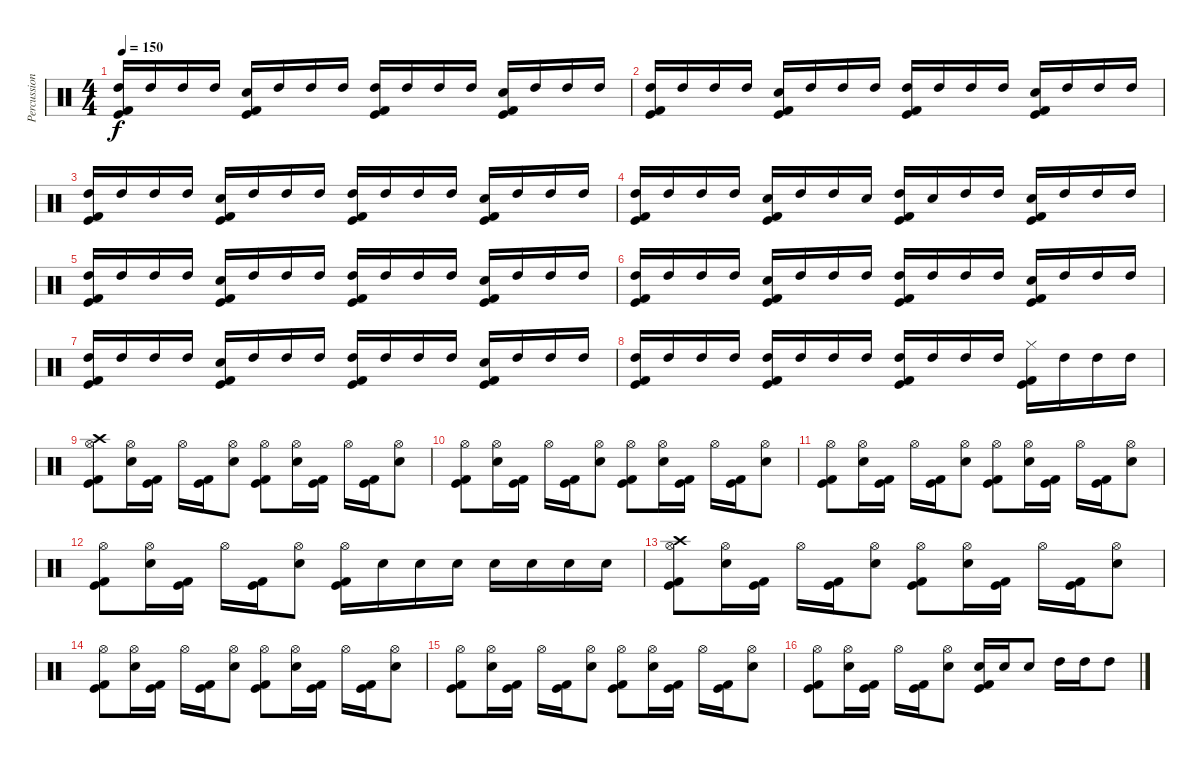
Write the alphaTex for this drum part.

\track ("Percussion" "Percussion") {instrument percussion}
\staff {score}
\articulation defaults
\ts (4 4)
\tempo 150
\clef neutral
\ks c
("High Tom (hit)" "Kick (hit)" "Kick (hit) 2").16{dy f} "High Tom (hit)".16 "High Tom (hit)".16 "High Tom (hit)".16 ("Electric Snare (hit)" "Kick (hit)" "Kick (hit) 2").16 "High Tom (hit)".16 "High Tom (hit)".16 "High Tom (hit)".16 ("High Tom (hit)" "Kick (hit)" "Kick (hit) 2").16 "High Tom (hit)".16 "High Tom (hit)".16 "High Tom (hit)".16 ("Electric Snare (hit)" "Kick (hit)" "Kick (hit) 2").16 "High Tom (hit)".16 "High Tom (hit)".16 "High Tom (hit)".16 |
("High Tom (hit)" "Kick (hit)" "Kick (hit) 2").16 "High Tom (hit)".16 "High Tom (hit)".16 "High Tom (hit)".16 ("Electric Snare (hit)" "Kick (hit)" "Kick (hit) 2").16 "High Tom (hit)".16 "High Tom (hit)".16 "High Tom (hit)".16 ("High Tom (hit)" "Kick (hit)" "Kick (hit) 2").16 "High Tom (hit)".16 "High Tom (hit)".16 "High Tom (hit)".16 ("Electric Snare (hit)" "Kick (hit)" "Kick (hit) 2").16 "High Tom (hit)".16 "High Tom (hit)".16 "High Tom (hit)".16 |
("High Tom (hit)" "Kick (hit)" "Kick (hit) 2").16 "High Tom (hit)".16 "High Tom (hit)".16 "High Tom (hit)".16 ("Electric Snare (hit)" "Kick (hit)" "Kick (hit) 2").16 "High Tom (hit)".16 "High Tom (hit)".16 "High Tom (hit)".16 ("High Tom (hit)" "Kick (hit)" "Kick (hit) 2").16 "High Tom (hit)".16 "High Tom (hit)".16 "High Tom (hit)".16 ("Electric Snare (hit)" "Kick (hit)" "Kick (hit) 2").16 "High Tom (hit)".16 "High Tom (hit)".16 "High Tom (hit)".16 |
("High Tom (hit)" "Kick (hit)" "Kick (hit) 2").16 "High Tom (hit)".16 "High Tom (hit)".16 "High Tom (hit)".16 ("Electric Snare (hit)" "Kick (hit)" "Kick (hit) 2").16 "High Tom (hit)".16 "High Tom (hit)".16 "Electric Snare (hit)".16 ("High Tom (hit)" "Kick (hit)" "Kick (hit) 2").16 "Electric Snare (hit)".16 "High Tom (hit)".16 "High Tom (hit)".16 ("Electric Snare (hit)" "Kick (hit)" "Kick (hit) 2").16 "High Tom (hit)".16 "High Tom (hit)".16 "High Tom (hit)".16 |
("High Tom (hit)" "Kick (hit)" "Kick (hit) 2").16 "High Tom (hit)".16 "High Tom (hit)".16 "High Tom (hit)".16 ("Electric Snare (hit)" "Kick (hit)" "Kick (hit) 2").16 "High Tom (hit)".16 "High Tom (hit)".16 "High Tom (hit)".16 ("High Tom (hit)" "Kick (hit)" "Kick (hit) 2").16 "High Tom (hit)".16 "High Tom (hit)".16 "High Tom (hit)".16 ("Electric Snare (hit)" "Kick (hit)" "Kick (hit) 2").16 "High Tom (hit)".16 "High Tom (hit)".16 "High Tom (hit)".16 |
("High Tom (hit)" "Kick (hit)" "Kick (hit) 2").16 "High Tom (hit)".16 "High Tom (hit)".16 "High Tom (hit)".16 ("Electric Snare (hit)" "Kick (hit)" "Kick (hit) 2").16 "High Tom (hit)".16 "High Tom (hit)".16 "High Tom (hit)".16 ("High Tom (hit)" "Kick (hit)" "Kick (hit) 2").16 "High Tom (hit)".16 "High Tom (hit)".16 "High Tom (hit)".16 ("Electric Snare (hit)" "Kick (hit)" "Kick (hit) 2").16 "High Tom (hit)".16 "High Tom (hit)".16 "High Tom (hit)".16 |
("High Tom (hit)" "Kick (hit)" "Kick (hit) 2").16 "High Tom (hit)".16 "High Tom (hit)".16 "High Tom (hit)".16 ("Electric Snare (hit)" "Kick (hit)" "Kick (hit) 2").16 "High Tom (hit)".16 "High Tom (hit)".16 "High Tom (hit)".16 ("High Tom (hit)" "Kick (hit)" "Kick (hit) 2").16 "High Tom (hit)".16 "High Tom (hit)".16 "High Tom (hit)".16 ("Electric Snare (hit)" "Kick (hit)" "Kick (hit) 2").16 "High Tom (hit)".16 "High Tom (hit)".16 "High Tom (hit)".16 |
("High Tom (hit)" "Kick (hit)" "Kick (hit) 2").16 "High Tom (hit)".16 "High Tom (hit)".16 "High Tom (hit)".16 ("High Tom (hit)" "Kick (hit)" "Kick (hit) 2").16 "High Tom (hit)".16 "High Tom (hit)".16 "High Tom (hit)".16 ("High Tom (hit)" "Kick (hit)" "Kick (hit) 2").16 "High Tom (hit)".16 "High Tom (hit)".16 "High Tom (hit)".16 ("Hi-Hat (closed)" "Kick (hit)" "Kick (hit) 2").16 "High Tom (hit)".16 "High Tom (hit)".16 "High Tom (hit)".16 |
("Crash high (hit)" "Hi-Hat (open)" "Kick (hit)" "Kick (hit) 2").8 ("Hi-Hat (open)" "Electric Snare (hit)").16 ("Kick (hit)" "Kick (hit) 2").16 "Hi-Hat (open)".16 ("Kick (hit)" "Kick (hit) 2").16 ("Hi-Hat (open)" "Electric Snare (hit)").8 ("Hi-Hat (open)" "Kick (hit)" "Kick (hit) 2").8 ("Hi-Hat (open)" "Electric Snare (hit)").16 ("Kick (hit)" "Kick (hit) 2").16 "Hi-Hat (open)".16 ("Kick (hit)" "Kick (hit) 2").16 ("Hi-Hat (open)" "Electric Snare (hit)").8 |
("Hi-Hat (open)" "Kick (hit)" "Kick (hit) 2").8 ("Hi-Hat (open)" "Electric Snare (hit)").16 ("Kick (hit)" "Kick (hit) 2").16 "Hi-Hat (open)".16 ("Kick (hit)" "Kick (hit) 2").16 ("Hi-Hat (open)" "Electric Snare (hit)").8 ("Hi-Hat (open)" "Kick (hit)" "Kick (hit) 2").8 ("Hi-Hat (open)" "Electric Snare (hit)").16 ("Kick (hit)" "Kick (hit) 2").16 "Hi-Hat (open)".16 ("Kick (hit)" "Kick (hit) 2").16 ("Hi-Hat (open)" "Electric Snare (hit)").8 |
("Hi-Hat (open)" "Kick (hit)" "Kick (hit) 2").8 ("Hi-Hat (open)" "Electric Snare (hit)").16 ("Kick (hit)" "Kick (hit) 2").16 "Hi-Hat (open)".16 ("Kick (hit)" "Kick (hit) 2").16 ("Hi-Hat (open)" "Electric Snare (hit)").8 ("Hi-Hat (open)" "Kick (hit)" "Kick (hit) 2").8 ("Hi-Hat (open)" "Electric Snare (hit)").16 ("Kick (hit)" "Kick (hit) 2").16 "Hi-Hat (open)".16 ("Kick (hit)" "Kick (hit) 2").16 ("Hi-Hat (open)" "Electric Snare (hit)").8 |
("Hi-Hat (open)" "Kick (hit)" "Kick (hit) 2").8 ("Hi-Hat (open)" "Electric Snare (hit)").16 ("Kick (hit)" "Kick (hit) 2").16 "Hi-Hat (open)".16 ("Kick (hit)" "Kick (hit) 2").16 ("Hi-Hat (open)" "Electric Snare (hit)").8 ("Hi-Hat (open)" "Kick (hit)" "Kick (hit) 2").16 "Electric Snare (hit)".16 "Electric Snare (hit)".16 "Electric Snare (hit)".16 "Electric Snare (hit)".16 "Electric Snare (hit)".16 "Electric Snare (hit)".16 "Electric Snare (hit)".16 |
("Crash high (hit)" "Hi-Hat (open)" "Kick (hit)" "Kick (hit) 2").8 ("Hi-Hat (open)" "Electric Snare (hit)").16 ("Kick (hit)" "Kick (hit) 2").16 "Hi-Hat (open)".16 ("Kick (hit)" "Kick (hit) 2").16 ("Hi-Hat (open)" "Electric Snare (hit)").8 ("Hi-Hat (open)" "Kick (hit)" "Kick (hit) 2").8 ("Hi-Hat (open)" "Electric Snare (hit)").16 ("Kick (hit)" "Kick (hit) 2").16 "Hi-Hat (open)".16 ("Kick (hit)" "Kick (hit) 2").16 ("Hi-Hat (open)" "Electric Snare (hit)").8 |
("Hi-Hat (open)" "Kick (hit)" "Kick (hit) 2").8 ("Hi-Hat (open)" "Electric Snare (hit)").16 ("Kick (hit)" "Kick (hit) 2").16 "Hi-Hat (open)".16 ("Kick (hit)" "Kick (hit) 2").16 ("Hi-Hat (open)" "Electric Snare (hit)").8 ("Hi-Hat (open)" "Kick (hit)" "Kick (hit) 2").8 ("Hi-Hat (open)" "Electric Snare (hit)").16 ("Kick (hit)" "Kick (hit) 2").16 "Hi-Hat (open)".16 ("Kick (hit)" "Kick (hit) 2").16 ("Hi-Hat (open)" "Electric Snare (hit)").8 |
("Hi-Hat (open)" "Kick (hit)" "Kick (hit) 2").8 ("Hi-Hat (open)" "Electric Snare (hit)").16 ("Kick (hit)" "Kick (hit) 2").16 "Hi-Hat (open)".16 ("Kick (hit)" "Kick (hit) 2").16 ("Hi-Hat (open)" "Electric Snare (hit)").8 ("Hi-Hat (open)" "Kick (hit)" "Kick (hit) 2").8 ("Hi-Hat (open)" "Electric Snare (hit)").16 ("Kick (hit)" "Kick (hit) 2").16 "Hi-Hat (open)".16 ("Kick (hit)" "Kick (hit) 2").16 ("Hi-Hat (open)" "Electric Snare (hit)").8 |
("Hi-Hat (open)" "Kick (hit)" "Kick (hit) 2").8 ("Hi-Hat (open)" "Electric Snare (hit)").16 ("Kick (hit)" "Kick (hit) 2").16 "Hi-Hat (open)".16 ("Kick (hit)" "Kick (hit) 2").16 ("Hi-Hat (open)" "Electric Snare (hit)").8 ("Electric Snare (hit)" "Kick (hit)" "Kick (hit) 2").16 "Electric Snare (hit)".16 "Electric Snare (hit)".8 "High Tom (hit)".16 "High Tom (hit)".16 "High Tom (hit)".8
